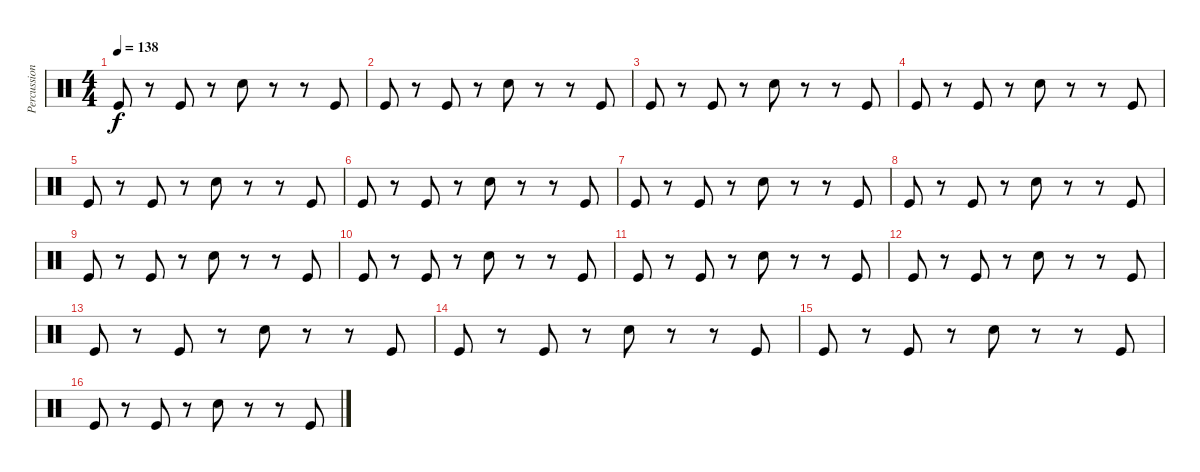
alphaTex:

\track ("Percussions" "Percussion") {instrument percussion}
\staff {score}
\articulation defaults
\ts (4 4)
\tempo 138
\clef neutral
\ks c "Kick (hit)".8{dy f}
r.8 "Kick (hit)".8 r.8 "Electric Snare (hit)".8 r.8 r.8 "Kick (hit)".8 |
"Kick (hit)".8 r.8 "Kick (hit)".8 r.8 "Electric Snare (hit)".8 r.8 r.8 "Kick (hit)".8 |
"Kick (hit)".8 r.8 "Kick (hit)".8 r.8 "Electric Snare (hit)".8 r.8 r.8 "Kick (hit)".8 |
"Kick (hit)".8 r.8 "Kick (hit)".8 r.8 "Electric Snare (hit)".8 r.8 r.8 "Kick (hit)".8 |
"Kick (hit)".8 r.8 "Kick (hit)".8 r.8 "Electric Snare (hit)".8 r.8 r.8 "Kick (hit)".8 |
"Kick (hit)".8 r.8 "Kick (hit)".8 r.8 "Electric Snare (hit)".8 r.8 r.8 "Kick (hit)".8 |
"Kick (hit)".8 r.8 "Kick (hit)".8 r.8 "Electric Snare (hit)".8 r.8 r.8 "Kick (hit)".8 |
"Kick (hit)".8 r.8 "Kick (hit)".8 r.8 "Electric Snare (hit)".8 r.8 r.8 "Kick (hit)".8 |
"Kick (hit)".8 r.8 "Kick (hit)".8 r.8 "Electric Snare (hit)".8 r.8 r.8 "Kick (hit)".8 |
"Kick (hit)".8 r.8 "Kick (hit)".8 r.8 "Electric Snare (hit)".8 r.8 r.8 "Kick (hit)".8 |
"Kick (hit)".8 r.8 "Kick (hit)".8 r.8 "Electric Snare (hit)".8 r.8 r.8 "Kick (hit)".8 |
"Kick (hit)".8 r.8 "Kick (hit)".8 r.8 "Electric Snare (hit)".8 r.8 r.8 "Kick (hit)".8 |
"Kick (hit)".8 r.8 "Kick (hit)".8 r.8 "Electric Snare (hit)".8 r.8 r.8 "Kick (hit)".8 |
"Kick (hit)".8 r.8 "Kick (hit)".8 r.8 "Electric Snare (hit)".8 r.8 r.8 "Kick (hit)".8 |
"Kick (hit)".8 r.8 "Kick (hit)".8 r.8 "Electric Snare (hit)".8 r.8 r.8 "Kick (hit)".8 |
"Kick (hit)".8 r.8 "Kick (hit)".8 r.8 "Electric Snare (hit)".8 r.8 r.8 "Kick (hit)".8
